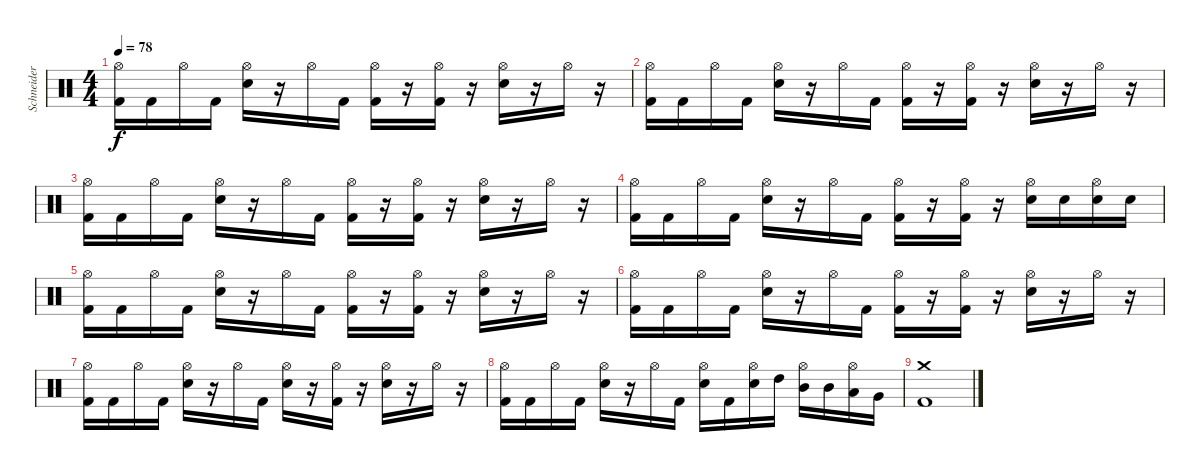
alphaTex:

\track ("Schneider - Drums" "Schneider ") {instrument percussion}
\staff {score}
\articulation defaults
\ts (4 4)
\tempo 78
\clef neutral
\ks c
("Hi-Hat (open)" "Kick (hit) 2").16{dy f} "Kick (hit) 2".16 "Hi-Hat (open)".16 "Kick (hit) 2".16 ("Hi-Hat (open)" "Snare (hit) 2").16 r.16 "Hi-Hat (open)".16 "Kick (hit) 2".16 ("Hi-Hat (open)" "Kick (hit) 2").16 r.16 ("Hi-Hat (open)" "Kick (hit) 2").16 r.16 ("Hi-Hat (open)" "Snare (hit) 2").16 r.16 "Hi-Hat (open)".16 r.16 |
("Hi-Hat (open)" "Kick (hit) 2").16 "Kick (hit) 2".16 "Hi-Hat (open)".16 "Kick (hit) 2".16 ("Hi-Hat (open)" "Snare (hit) 2").16 r.16 "Hi-Hat (open)".16 "Kick (hit) 2".16 ("Hi-Hat (open)" "Kick (hit) 2").16 r.16 ("Hi-Hat (open)" "Kick (hit) 2").16 r.16 ("Hi-Hat (open)" "Snare (hit) 2").16 r.16 "Hi-Hat (open)".16 r.16 |
("Hi-Hat (open)" "Kick (hit) 2").16 "Kick (hit) 2".16 "Hi-Hat (open)".16 "Kick (hit) 2".16 ("Hi-Hat (open)" "Snare (hit) 2").16 r.16 "Hi-Hat (open)".16 "Kick (hit) 2".16 ("Hi-Hat (open)" "Kick (hit) 2").16 r.16 ("Hi-Hat (open)" "Kick (hit) 2").16 r.16 ("Hi-Hat (open)" "Snare (hit) 2").16 r.16 "Hi-Hat (open)".16 r.16 |
("Hi-Hat (open)" "Kick (hit) 2").16 "Kick (hit) 2".16 "Hi-Hat (open)".16 "Kick (hit) 2".16 ("Hi-Hat (open)" "Snare (hit) 2").16 r.16 "Hi-Hat (open)".16 "Kick (hit) 2".16 ("Hi-Hat (open)" "Kick (hit) 2").16 r.16 ("Hi-Hat (open)" "Kick (hit) 2").16 r.16 ("Hi-Hat (open)" "Snare (hit) 2").16 "Snare (hit) 2".16 ("Hi-Hat (open)" "Snare (hit) 2").16 "Snare (hit) 2".16 |
("Hi-Hat (open)" "Kick (hit) 2").16 "Kick (hit) 2".16 "Hi-Hat (open)".16 "Kick (hit) 2".16 ("Hi-Hat (open)" "Snare (hit) 2").16 r.16 "Hi-Hat (open)".16 "Kick (hit) 2".16 ("Hi-Hat (open)" "Kick (hit) 2").16 r.16 ("Hi-Hat (open)" "Kick (hit) 2").16 r.16 ("Hi-Hat (open)" "Snare (hit) 2").16 r.16 "Hi-Hat (open)".16 r.16 |
("Hi-Hat (open)" "Kick (hit) 2").16 "Kick (hit) 2".16 "Hi-Hat (open)".16 "Kick (hit) 2".16 ("Hi-Hat (open)" "Snare (hit) 2").16 r.16 "Hi-Hat (open)".16 "Kick (hit) 2".16 ("Hi-Hat (open)" "Kick (hit) 2").16 r.16 ("Hi-Hat (open)" "Kick (hit) 2").16 r.16 ("Hi-Hat (open)" "Snare (hit) 2").16 r.16 "Hi-Hat (open)".16 r.16 |
("Hi-Hat (open)" "Kick (hit) 2").16 "Kick (hit) 2".16 "Hi-Hat (open)".16 "Kick (hit) 2".16 ("Hi-Hat (open)" "Snare (hit) 2").16 r.16 "Hi-Hat (open)".16 "Kick (hit) 2".16 ("Hi-Hat (open)" "Snare (hit) 2").16 r.16 ("Hi-Hat (open)" "Kick (hit) 2").16 r.16 ("Hi-Hat (open)" "Snare (hit) 2").16 r.16 "Hi-Hat (open)".16 r.16 |
("Hi-Hat (open)" "Kick (hit) 2").16 "Kick (hit) 2".16 "Hi-Hat (open)".16 "Kick (hit) 2".16 ("Hi-Hat (open)" "Snare (hit) 2").16 r.16 "Hi-Hat (open)".16 "Kick (hit) 2".16 ("Hi-Hat (open)" "Snare (hit) 2").16 "Kick (hit) 2".16 ("Hi-Hat (open)" "Snare (hit) 2").16 "High Tom (hit)".16 ("Hi-Hat (open)" "Mid Tom (hit)").16 "Mid Tom (hit)".16 ("Hi-Hat (open)" "Low Tom (hit)").16 "Very Low Tom (hit)".16 |
("Crash medium (hit)" "Kick (hit) 2").1
